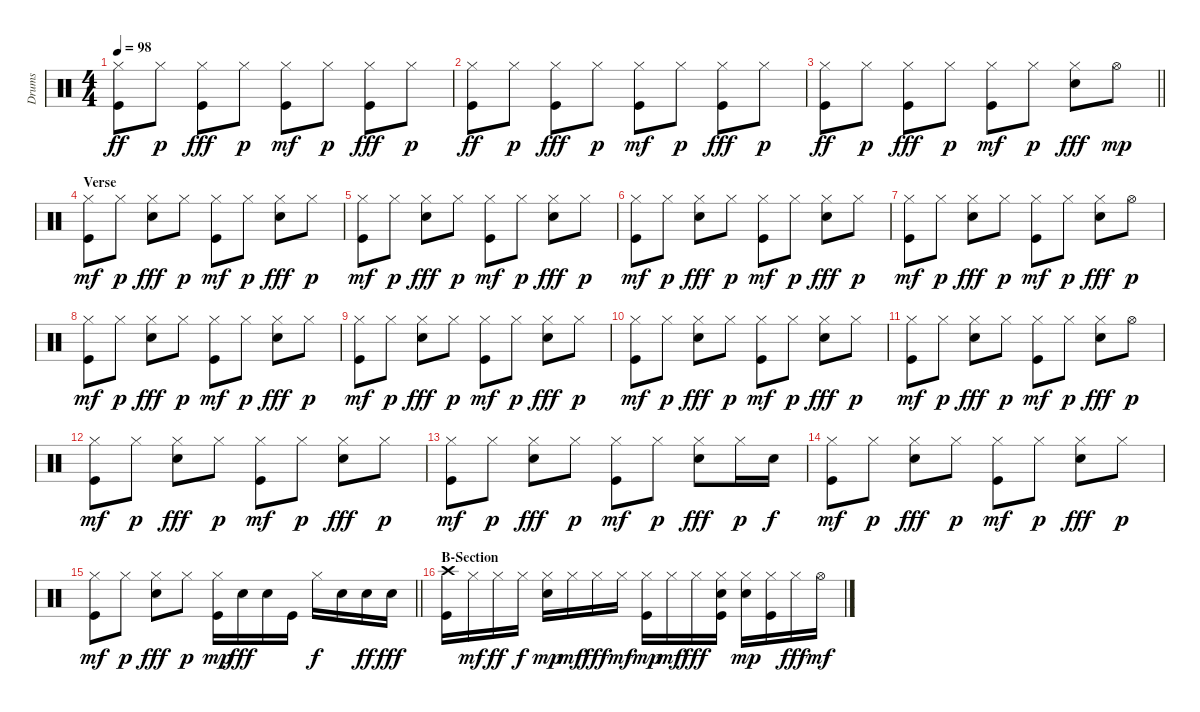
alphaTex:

\track ("Drums" "Drums") {instrument percussion}
\staff {score}
\articulation defaults
\ts (4 4)
\tempo 98
\clef neutral
\ks c
("Kick (hit)" "Hi-Hat (closed)").8{dy ff} "Hi-Hat (closed)".8{dy p} ("Kick (hit)" "Hi-Hat (closed)").8{dy fff} "Hi-Hat (closed)".8{dy p} ("Kick (hit)" "Hi-Hat (closed)").8{dy mf} "Hi-Hat (closed)".8{dy p} ("Kick (hit)" "Hi-Hat (closed)").8{dy fff} "Hi-Hat (closed)".8{dy p} |
("Kick (hit)" "Hi-Hat (closed)").8{dy ff} "Hi-Hat (closed)".8{dy p} ("Kick (hit)" "Hi-Hat (closed)").8{dy fff} "Hi-Hat (closed)".8{dy p} ("Kick (hit)" "Hi-Hat (closed)").8{dy mf} "Hi-Hat (closed)".8{dy p} ("Kick (hit)" "Hi-Hat (closed)").8{dy fff} "Hi-Hat (closed)".8{dy p} |
\barLineRight lightlight
("Kick (hit)" "Hi-Hat (closed)").8{dy ff} "Hi-Hat (closed)".8{dy p} ("Kick (hit)" "Hi-Hat (closed)").8{dy fff} "Hi-Hat (closed)".8{dy p} ("Kick (hit)" "Hi-Hat (closed)").8{dy mf} "Hi-Hat (closed)".8{dy p} ("Snare (hit) 2" "Hi-Hat (closed)").8{dy fff} "Hi-Hat (open)".8{dy mp} |
\section ("" "Verse")
("Kick (hit)" "Hi-Hat (closed)").8{dy mf} "Hi-Hat (closed)".8{dy p} ("Snare (hit) 2" "Hi-Hat (closed)").8{dy fff} "Hi-Hat (closed)".8{dy p} ("Kick (hit)" "Hi-Hat (closed)").8{dy mf} "Hi-Hat (closed)".8{dy p} ("Snare (hit) 2" "Hi-Hat (closed)").8{dy fff} "Hi-Hat (closed)".8{dy p} |
("Kick (hit)" "Hi-Hat (closed)").8{dy mf} "Hi-Hat (closed)".8{dy p} ("Snare (hit) 2" "Hi-Hat (closed)").8{dy fff} "Hi-Hat (closed)".8{dy p} ("Kick (hit)" "Hi-Hat (closed)").8{dy mf} "Hi-Hat (closed)".8{dy p} ("Snare (hit) 2" "Hi-Hat (closed)").8{dy fff} "Hi-Hat (closed)".8{dy p} |
("Kick (hit)" "Hi-Hat (closed)").8{dy mf} "Hi-Hat (closed)".8{dy p} ("Snare (hit) 2" "Hi-Hat (closed)").8{dy fff} "Hi-Hat (closed)".8{dy p} ("Kick (hit)" "Hi-Hat (closed)").8{dy mf} "Hi-Hat (closed)".8{dy p} ("Snare (hit) 2" "Hi-Hat (closed)").8{dy fff} "Hi-Hat (closed)".8{dy p} |
("Kick (hit)" "Hi-Hat (closed)").8{dy mf} "Hi-Hat (closed)".8{dy p} ("Snare (hit) 2" "Hi-Hat (closed)").8{dy fff} "Hi-Hat (closed)".8{dy p} ("Kick (hit)" "Hi-Hat (closed)").8{dy mf} "Hi-Hat (closed)".8{dy p} ("Snare (hit) 2" "Hi-Hat (closed)").8{dy fff} "Hi-Hat (open)".8{dy p} |
("Kick (hit)" "Hi-Hat (closed)").8{dy mf} "Hi-Hat (closed)".8{dy p} ("Snare (hit) 2" "Hi-Hat (closed)").8{dy fff} "Hi-Hat (closed)".8{dy p} ("Kick (hit)" "Hi-Hat (closed)").8{dy mf} "Hi-Hat (closed)".8{dy p} ("Snare (hit) 2" "Hi-Hat (closed)").8{dy fff} "Hi-Hat (closed)".8{dy p} |
("Kick (hit)" "Hi-Hat (closed)").8{dy mf} "Hi-Hat (closed)".8{dy p} ("Snare (hit) 2" "Hi-Hat (closed)").8{dy fff} "Hi-Hat (closed)".8{dy p} ("Kick (hit)" "Hi-Hat (closed)").8{dy mf} "Hi-Hat (closed)".8{dy p} ("Snare (hit) 2" "Hi-Hat (closed)").8{dy fff} "Hi-Hat (closed)".8{dy p} |
("Kick (hit)" "Hi-Hat (closed)").8{dy mf} "Hi-Hat (closed)".8{dy p} ("Snare (hit) 2" "Hi-Hat (closed)").8{dy fff} "Hi-Hat (closed)".8{dy p} ("Kick (hit)" "Hi-Hat (closed)").8{dy mf} "Hi-Hat (closed)".8{dy p} ("Snare (hit) 2" "Hi-Hat (closed)").8{dy fff} "Hi-Hat (closed)".8{dy p} |
("Kick (hit)" "Hi-Hat (closed)").8{dy mf} "Hi-Hat (closed)".8{dy p} ("Snare (hit) 2" "Hi-Hat (closed)").8{dy fff} "Hi-Hat (closed)".8{dy p} ("Kick (hit)" "Hi-Hat (closed)").8{dy mf} "Hi-Hat (closed)".8{dy p} ("Snare (hit) 2" "Hi-Hat (closed)").8{dy fff} "Hi-Hat (open)".8{dy p} |
("Kick (hit)" "Hi-Hat (closed)").8{dy mf} "Hi-Hat (closed)".8{dy p} ("Snare (hit) 2" "Hi-Hat (closed)").8{dy fff} "Hi-Hat (closed)".8{dy p} ("Kick (hit)" "Hi-Hat (closed)").8{dy mf} "Hi-Hat (closed)".8{dy p} ("Snare (hit) 2" "Hi-Hat (closed)").8{dy fff} "Hi-Hat (closed)".8{dy p} |
("Kick (hit)" "Hi-Hat (closed)").8{dy mf} "Hi-Hat (closed)".8{dy p} ("Snare (hit) 2" "Hi-Hat (closed)").8{dy fff} "Hi-Hat (closed)".8{dy p} ("Kick (hit)" "Hi-Hat (closed)").8{dy mf} "Hi-Hat (closed)".8{dy p} ("Snare (hit) 2" "Hi-Hat (closed)").8{dy fff} "Hi-Hat (closed)".16{dy p} "Snare (hit) 2".16{dy f} |
("Kick (hit)" "Hi-Hat (closed)").8{dy mf} "Hi-Hat (closed)".8{dy p} ("Snare (hit) 2" "Hi-Hat (closed)").8{dy fff} "Hi-Hat (closed)".8{dy p} ("Kick (hit)" "Hi-Hat (closed)").8{dy mf} "Hi-Hat (closed)".8{dy p} ("Snare (hit) 2" "Hi-Hat (closed)").8{dy fff} "Hi-Hat (closed)".8{dy p} |
\barLineRight lightlight
("Kick (hit)" "Hi-Hat (closed)").8{dy mf} "Hi-Hat (closed)".8{dy p} ("Snare (hit) 2" "Hi-Hat (closed)").8{dy fff} "Hi-Hat (closed)".8{dy p} ("Kick (hit)" "Hi-Hat (closed)").16{dy mp} "Snare (hit) 2".16{dy fff} "Snare (hit) 2".16 "Kick (hit)".16 "Hi-Hat (closed)".16{dy f} "Snare (hit) 2".16 "Snare (hit) 2".16{dy ff} "Snare (hit) 2".16{dy fff} |
\section ("" "B-Section")
("Kick (hit)" "Crash high (hit)").16 "Hi-Hat (closed)".16{dy mf} "Hi-Hat (closed)".16{dy ff} "Hi-Hat (closed)".16{dy f} ("Snare (hit) 2" "Hi-Hat (closed)").16{dy mp} "Hi-Hat (closed)".16{dy mf} "Hi-Hat (closed)".16{dy fff} "Hi-Hat (closed)".16{dy mf} ("Kick (hit)" "Hi-Hat (closed)").16{dy mp} "Hi-Hat (closed)".16{dy mf} "Hi-Hat (closed)".16{dy fff} ("Kick (hit)" "Hi-Hat (closed)" "Hand Clap (hit)").16 ("Snare (hit) 2" "Hi-Hat (closed)").16{dy mp} ("Kick (hit)" "Hi-Hat (closed)").16 "Hi-Hat (closed)".16{dy fff} "Hi-Hat (open)".16{dy mf}
